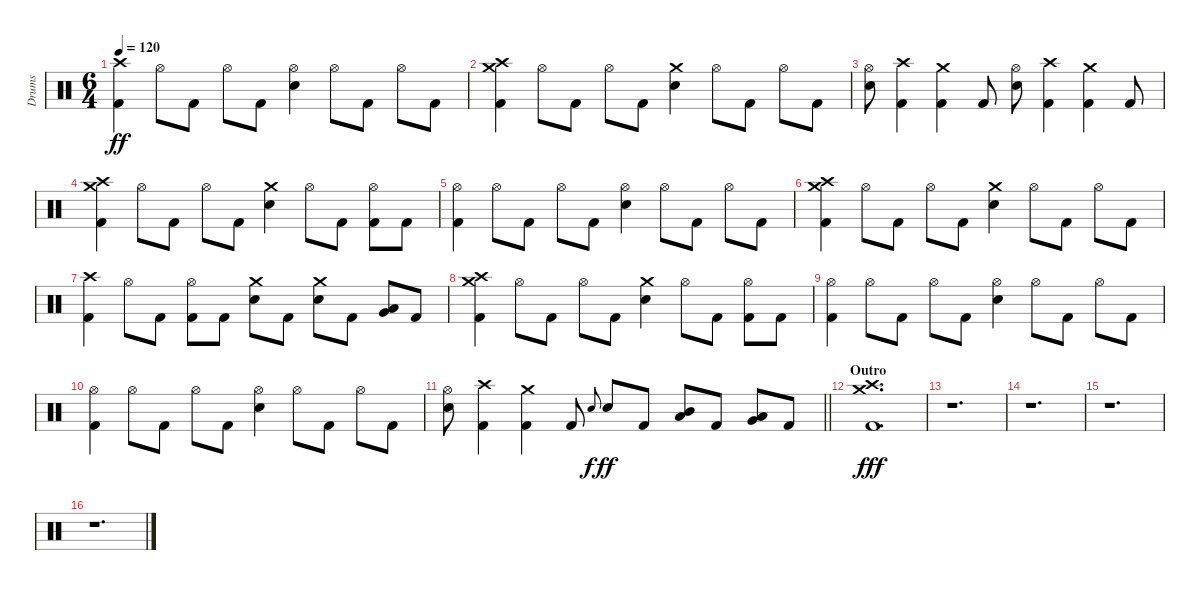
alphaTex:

\track ("Drums" "Drums") {instrument percussion}
\staff {score}
\articulation defaults
\ts (6 4)
\tempo 120
\clef neutral
\ks c
("Crash high (hit)" "Kick (hit) 2").4{dy ff} "Hi-Hat (open)".8 "Kick (hit) 2".8 "Hi-Hat (open)".8 "Kick (hit) 2".8 ("Hi-Hat (open)" "Electric Snare (hit)").4 "Hi-Hat (open)".8 "Kick (hit) 2".8 "Hi-Hat (open)".8 "Kick (hit) 2".8 |
("Crash medium (hit)" "Crash high (hit)" "Kick (hit) 2").4 "Hi-Hat (open)".8 "Kick (hit) 2".8 "Hi-Hat (open)".8 "Kick (hit) 2".8 ("Crash medium (hit)" "Electric Snare (hit)").4 "Hi-Hat (open)".8 "Kick (hit) 2".8 "Hi-Hat (open)".8 "Kick (hit) 2".8 |
("Hi-Hat (open)" "Electric Snare (hit)").8 ("Crash high (hit)" "Kick (hit) 2").4 ("Crash medium (hit)" "Kick (hit) 2").4 "Kick (hit) 2".8 ("Hi-Hat (open)" "Electric Snare (hit)").8 ("Crash high (hit)" "Kick (hit) 2").4 ("Crash medium (hit)" "Kick (hit) 2").4 "Kick (hit) 2".8 |
("Crash medium (hit)" "Crash high (hit)" "Kick (hit) 2").4 "Hi-Hat (open)".8 "Kick (hit) 2".8 "Hi-Hat (open)".8 "Kick (hit) 2".8 ("Crash medium (hit)" "Electric Snare (hit)").4 "Hi-Hat (open)".8 "Kick (hit) 2".8 ("Hi-Hat (open)" "Kick (hit) 2").8 "Kick (hit) 2".8 |
("Hi-Hat (open)" "Kick (hit) 2").4 "Hi-Hat (open)".8 "Kick (hit) 2".8 "Hi-Hat (open)".8 "Kick (hit) 2".8 ("Hi-Hat (open)" "Electric Snare (hit)").4 "Hi-Hat (open)".8 "Kick (hit) 2".8 "Hi-Hat (open)".8 "Kick (hit) 2".8 |
("Crash medium (hit)" "Crash high (hit)" "Kick (hit) 2").4 "Hi-Hat (open)".8 "Kick (hit) 2".8 "Hi-Hat (open)".8 "Kick (hit) 2".8 ("Crash medium (hit)" "Electric Snare (hit)").4 "Hi-Hat (open)".8 "Kick (hit) 2".8 "Hi-Hat (open)".8 "Kick (hit) 2".8 |
("Crash high (hit)" "Kick (hit) 2").4 "Hi-Hat (open)".8 "Kick (hit) 2".8 ("Hi-Hat (open)" "Kick (hit) 2").8 "Kick (hit) 2".8 ("Crash medium (hit)" "Electric Snare (hit)").8 "Kick (hit) 2".8 ("Crash medium (hit)" "Electric Snare (hit)").8 "Kick (hit) 2".8 ("Very Low Tom (hit)" "Low Tom (hit)").8 "Kick (hit) 2".8 |
("Crash medium (hit)" "Crash high (hit)" "Kick (hit) 2").4 "Hi-Hat (open)".8 "Kick (hit) 2".8 "Hi-Hat (open)".8 "Kick (hit) 2".8 ("Crash medium (hit)" "Electric Snare (hit)").4 "Hi-Hat (open)".8 "Kick (hit) 2".8 ("Hi-Hat (open)" "Kick (hit) 2").8 "Kick (hit) 2".8 |
("Hi-Hat (open)" "Kick (hit) 2").4 "Hi-Hat (open)".8 "Kick (hit) 2".8 "Hi-Hat (open)".8 "Kick (hit) 2".8 ("Hi-Hat (open)" "Electric Snare (hit)").4 "Hi-Hat (open)".8 "Kick (hit) 2".8 "Hi-Hat (open)".8 "Kick (hit) 2".8 |
("Hi-Hat (open)" "Kick (hit) 2").4 "Hi-Hat (open)".8 "Kick (hit) 2".8 "Hi-Hat (open)".8 "Kick (hit) 2".8 ("Hi-Hat (open)" "Electric Snare (hit)").4 "Hi-Hat (open)".8 "Kick (hit) 2".8 "Hi-Hat (open)".8 "Kick (hit) 2".8 |
\barLineRight lightlight
("Hi-Hat (open)" "Electric Snare (hit)").8 ("Crash high (hit)" "Kick (hit) 2").4 ("Crash medium (hit)" "Kick (hit) 2").4 "Kick (hit) 2".8 "Electric Snare (hit)".8{gr onbeat dy f} "Electric Snare (hit)".8{dy ff} "Kick (hit) 2".8 ("Mid Tom (hit)" "Low Tom (hit)").8 "Kick (hit) 2".8 ("Very Low Tom (hit)" "Low Tom (hit)").8 "Kick (hit) 2".8 |
\section ("" "Outro")
("Crash medium (hit)" "Crash high (hit)" "Kick (hit) 2").1{d dy fff} |
r.1{d} |
r.1{d} |
r.1{d} |
r.1{d}
